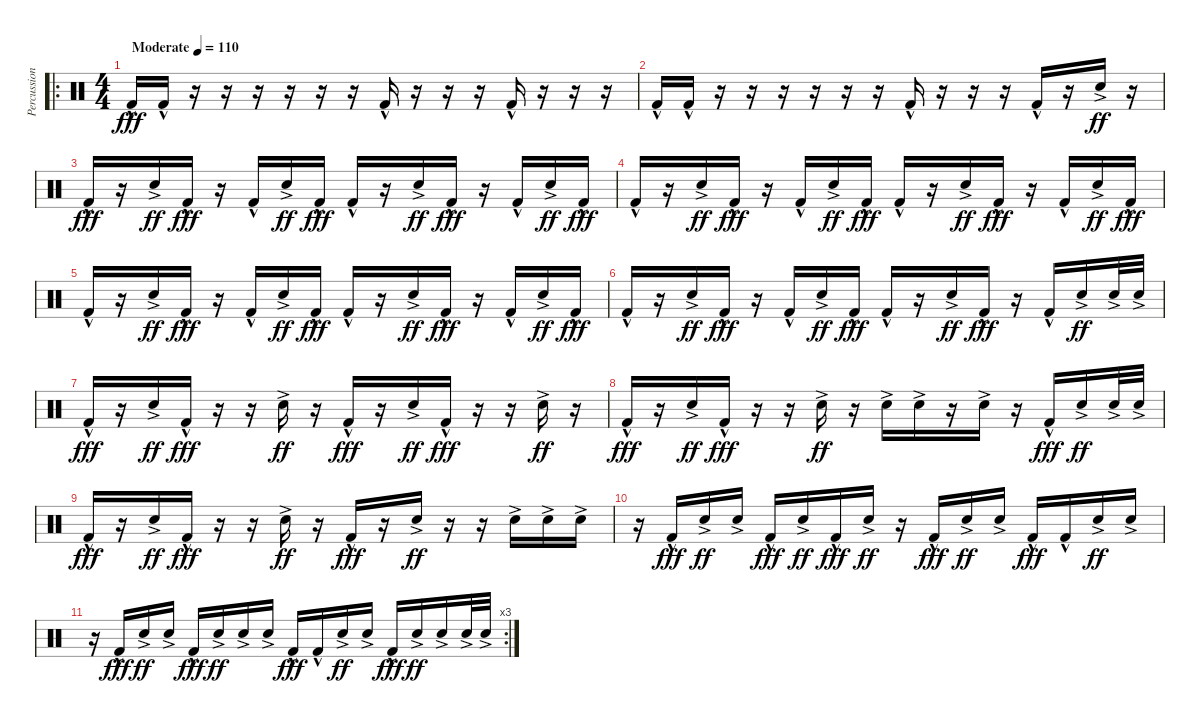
\track ("Percussion" "Percussion") {instrument percussion bank 255}
\staff {score}
\articulation defaults
\ro
\ts (4 4)
\tempo (110 "Moderate")
\clef neutral
\ks c "Kick (hit) 2"{hac}.16{dy fff} "Kick (hit) 2"{hac}.16
r.16 r.16 r.16 r.16 r.16 r.16 "Kick (hit) 2"{hac}.16 r.16 r.16 r.16 "Kick (hit) 2"{hac}.16 r.16 r.16 r.16 |
"Kick (hit) 2"{hac}.16 "Kick (hit) 2"{hac}.16 r.16 r.16 r.16 r.16 r.16 r.16 "Kick (hit) 2"{hac}.16 r.16 r.16 r.16 "Kick (hit) 2"{hac}.16 r.16 "Snare (hit) 2"{ac}.16{dy ff} r.16 |
"Kick (hit) 2"{hac}.16{dy fff} r.16 "Snare (hit) 2"{ac}.16{dy ff} "Kick (hit) 2"{hac}.16{dy fff} r.16 "Kick (hit) 2"{hac}.16 "Snare (hit) 2"{ac}.16{dy ff} "Kick (hit) 2"{hac}.16{dy fff} "Kick (hit) 2"{hac}.16 r.16 "Snare (hit) 2"{ac}.16{dy ff} "Kick (hit) 2"{hac}.16{dy fff} r.16 "Kick (hit) 2"{hac}.16 "Snare (hit) 2"{ac}.16{dy ff} "Kick (hit) 2"{hac}.16{dy fff} |
"Kick (hit) 2"{hac}.16 r.16 "Snare (hit) 2"{ac}.16{dy ff} "Kick (hit) 2"{hac}.16{dy fff} r.16 "Kick (hit) 2"{hac}.16 "Snare (hit) 2"{ac}.16{dy ff} "Kick (hit) 2"{hac}.16{dy fff} "Kick (hit) 2"{hac}.16 r.16 "Snare (hit) 2"{ac}.16{dy ff} "Kick (hit) 2"{hac}.16{dy fff} r.16 "Kick (hit) 2"{hac}.16 "Snare (hit) 2"{ac}.16{dy ff} "Kick (hit) 2"{hac}.16{dy fff} |
"Kick (hit) 2"{hac}.16 r.16 "Snare (hit) 2"{ac}.16{dy ff} "Kick (hit) 2"{hac}.16{dy fff} r.16 "Kick (hit) 2"{hac}.16 "Snare (hit) 2"{ac}.16{dy ff} "Kick (hit) 2"{hac}.16{dy fff} "Kick (hit) 2"{hac}.16 r.16 "Snare (hit) 2"{ac}.16{dy ff} "Kick (hit) 2"{hac}.16{dy fff} r.16 "Kick (hit) 2"{hac}.16 "Snare (hit) 2"{ac}.16{dy ff} "Kick (hit) 2"{hac}.16{dy fff} |
"Kick (hit) 2"{hac}.16 r.16 "Snare (hit) 2"{ac}.16{dy ff} "Kick (hit) 2"{hac}.16{dy fff} r.16 "Kick (hit) 2"{hac}.16 "Snare (hit) 2"{ac}.16{dy ff} "Kick (hit) 2"{hac}.16{dy fff} "Kick (hit) 2"{hac}.16 r.16 "Snare (hit) 2"{ac}.16{dy ff} "Kick (hit) 2"{hac}.16{dy fff} r.16 "Kick (hit) 2"{hac}.16 "Snare (hit) 2"{ac}.16{dy ff} "Snare (hit) 2"{ac}.32 "Snare (hit) 2"{ac}.32 |
"Kick (hit) 2"{hac}.16{dy fff} r.16 "Snare (hit) 2"{ac}.16{dy ff} "Kick (hit) 2"{hac}.16{dy fff} r.16 r.16 "Snare (hit) 2"{ac}.16{dy ff} r.16 "Kick (hit) 2"{hac}.16{dy fff} r.16 "Snare (hit) 2"{ac}.16{dy ff} "Kick (hit) 2"{hac}.16{dy fff} r.16 r.16 "Snare (hit) 2"{ac}.16{dy ff} r.16 |
"Kick (hit) 2"{hac}.16{dy fff} r.16 "Snare (hit) 2"{ac}.16{dy ff} "Kick (hit) 2"{hac}.16{dy fff} r.16 r.16 "Snare (hit) 2"{ac}.16{dy ff} r.16 "Snare (hit) 2"{ac}.16 "Snare (hit) 2"{ac}.16 r.16 "Snare (hit) 2"{ac}.16 r.16 "Kick (hit) 2"{hac}.16{dy fff} "Snare (hit) 2"{ac}.16{dy ff} "Snare (hit) 2"{ac}.32 "Snare (hit) 2"{ac}.32 |
"Kick (hit) 2"{hac}.16{dy fff} r.16 "Snare (hit) 2"{ac}.16{dy ff} "Kick (hit) 2"{hac}.16{dy fff} r.16 r.16 "Snare (hit) 2"{ac}.16{dy ff} r.16 "Kick (hit) 2"{hac}.16{dy fff} r.16 "Snare (hit) 2"{ac}.16{dy ff} r.16 r.16 "Snare (hit) 2"{ac}.16 "Snare (hit) 2"{ac}.16 "Snare (hit) 2"{ac}.16 |
r.16 "Kick (hit) 2"{hac}.16{dy fff} "Snare (hit) 2"{ac}.16{dy ff} "Snare (hit) 2"{ac}.16 "Kick (hit) 2"{hac}.16{dy fff} "Snare (hit) 2"{ac}.16{dy ff} "Kick (hit) 2"{hac}.16{dy fff} "Snare (hit) 2"{ac}.16{dy ff} r.16 "Kick (hit) 2"{hac}.16{dy fff} "Snare (hit) 2"{ac}.16{dy ff} "Snare (hit) 2"{ac}.16 "Kick (hit) 2"{hac}.16{dy fff} "Kick (hit) 2"{hac}.16 "Snare (hit) 2"{ac}.16{dy ff} "Snare (hit) 2"{ac}.16 |
\rc 3
r.16 "Kick (hit) 2"{hac}.16{dy fff} "Snare (hit) 2"{ac}.16{dy ff} "Snare (hit) 2"{ac}.16 "Kick (hit) 2"{hac}.16{dy fff} "Snare (hit) 2"{ac}.16{dy ff} "Snare (hit) 2"{ac}.16 "Snare (hit) 2"{ac}.16 "Kick (hit) 2"{hac}.16{dy fff} "Kick (hit) 2"{hac}.16 "Snare (hit) 2"{ac}.16{dy ff} "Snare (hit) 2"{ac}.16 "Kick (hit) 2"{hac}.16{dy fff} "Snare (hit) 2"{ac}.16{dy ff} "Snare (hit) 2"{ac}.16 "Snare (hit) 2"{ac}.32 "Snare (hit) 2"{ac}.32
